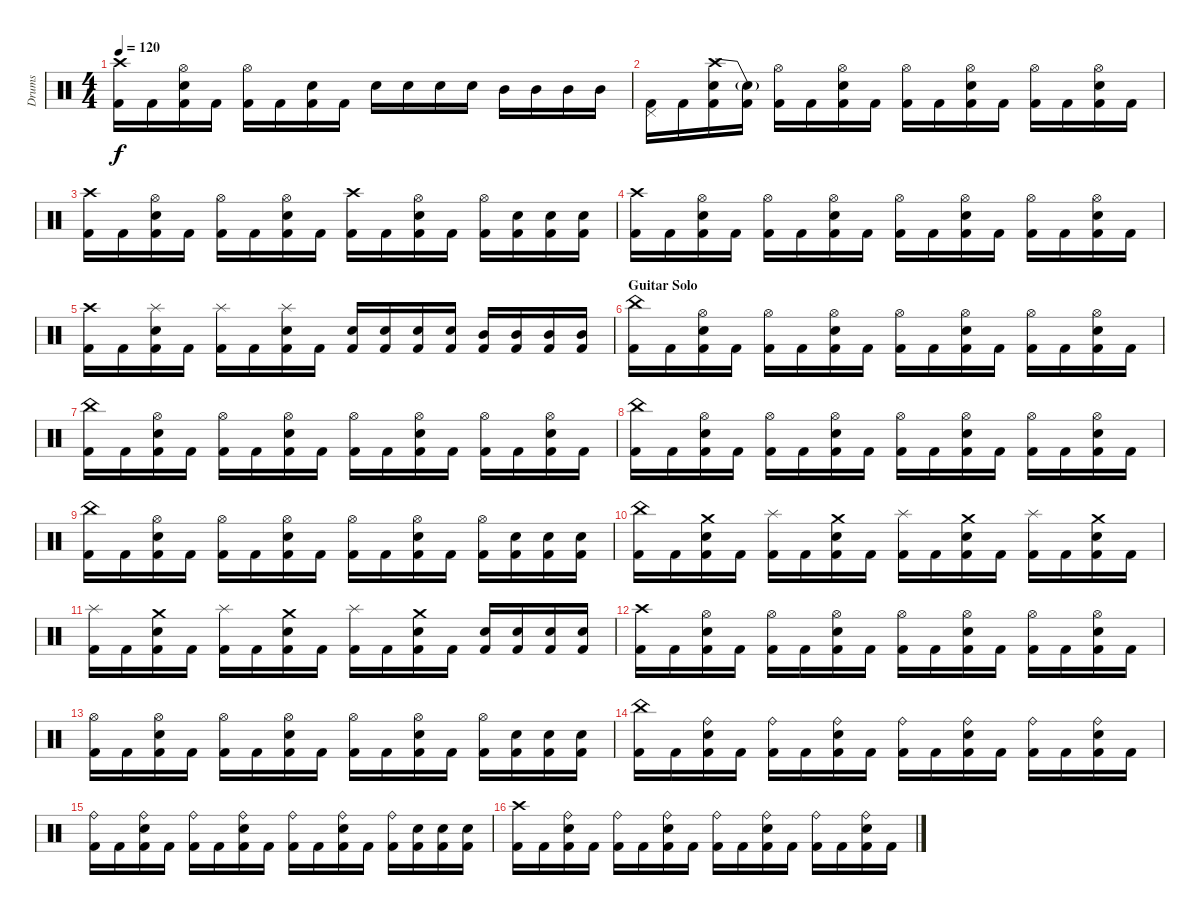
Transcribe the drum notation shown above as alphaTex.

\track ("Drums" "Drums") {instrument percussion}
\staff {score}
\articulation defaults
\ts (4 4)
\tempo 120
\clef neutral
\ks c
("Crash high (hit)" "Kick (hit) 2").16{dy f} "Kick (hit) 2".16 ("Hi-Hat (open)" "Kick (hit) 2" "Electric Snare (hit)").16 "Kick (hit) 2".16 ("Hi-Hat (open)" "Kick (hit) 2").16 "Kick (hit) 2".16 ("Kick (hit) 2" "Electric Snare (hit)").16 "Kick (hit) 2".16 "Electric Snare (hit)".16 "Electric Snare (hit)".16 "Electric Snare (hit)".16 "Electric Snare (hit)".16 "Mid Tom (hit)".16 "Mid Tom (hit)".16 "Mid Tom (hit)".16 "Mid Tom (hit)".16 |
("Pedal Hi-Hat (hit)" "Kick (hit) 2").16 "Kick (hit) 2".16 ("Crash high (hit)"{be (bend 0 0 60 12)} "Kick (hit) 2" "Electric Snare (hit)").16 ("Snare (hit)"{t} "Kick (hit) 2").16 ("Hi-Hat (open)" "Kick (hit) 2").16 "Kick (hit) 2".16 ("Hi-Hat (open)" "Kick (hit) 2" "Electric Snare (hit)").16 "Kick (hit) 2".16 ("Hi-Hat (open)" "Kick (hit) 2").16 "Kick (hit) 2".16 ("Hi-Hat (open)" "Kick (hit) 2" "Electric Snare (hit)").16 "Kick (hit) 2".16 ("Hi-Hat (open)" "Kick (hit) 2").16 "Kick (hit) 2".16 ("Hi-Hat (open)" "Kick (hit) 2" "Electric Snare (hit)").16 "Kick (hit) 2".16 |
("Crash high (hit)" "Kick (hit) 2").16 "Kick (hit) 2".16 ("Hi-Hat (open)" "Kick (hit) 2" "Electric Snare (hit)").16 "Kick (hit) 2".16 ("Hi-Hat (open)" "Kick (hit) 2").16 "Kick (hit) 2".16 ("Hi-Hat (open)" "Kick (hit) 2" "Electric Snare (hit)").16 "Kick (hit) 2".16 ("Crash high (hit)" "Kick (hit) 2").16 "Kick (hit) 2".16 ("Hi-Hat (open)" "Kick (hit) 2" "Electric Snare (hit)").16 "Kick (hit) 2".16 ("Hi-Hat (open)" "Kick (hit) 2").16 ("Kick (hit) 2" "Electric Snare (hit)").16 ("Kick (hit) 2" "Electric Snare (hit)").16 ("Kick (hit) 2" "Electric Snare (hit)").16 |
("Crash high (hit)" "Kick (hit) 2").16 "Kick (hit) 2".16 ("Hi-Hat (open)" "Kick (hit) 2" "Electric Snare (hit)").16 "Kick (hit) 2".16 ("Hi-Hat (open)" "Kick (hit) 2").16 "Kick (hit) 2".16 ("Hi-Hat (open)" "Kick (hit) 2" "Electric Snare (hit)").16 "Kick (hit) 2".16 ("Hi-Hat (open)" "Kick (hit) 2").16 "Kick (hit) 2".16 ("Hi-Hat (open)" "Kick (hit) 2" "Electric Snare (hit)").16 "Kick (hit) 2".16 ("Hi-Hat (open)" "Kick (hit) 2").16 "Kick (hit) 2".16 ("Hi-Hat (open)" "Kick (hit) 2" "Electric Snare (hit)").16 "Kick (hit) 2".16 |
("Crash high (hit)" "Kick (hit) 2").16 "Kick (hit) 2".16 ("Splash (hit)" "Kick (hit) 2" "Electric Snare (hit)").16 "Kick (hit) 2".16 ("Splash (hit)" "Kick (hit) 2").16 "Kick (hit) 2".16 ("Splash (hit)" "Kick (hit) 2" "Electric Snare (hit)").16 "Kick (hit) 2".16 ("Kick (hit) 2" "Electric Snare (hit)").16 ("Kick (hit) 2" "Electric Snare (hit)").16 ("Kick (hit) 2" "Electric Snare (hit)").16 ("Kick (hit) 2" "Electric Snare (hit)").16 ("Kick (hit) 2" "Mid Tom (hit)").16 ("Kick (hit) 2" "Mid Tom (hit)").16 ("Kick (hit) 2" "Mid Tom (hit)").16 ("Kick (hit) 2" "Mid Tom (hit)").16 |
\section ("" "Guitar Solo")
("China (hit)" "Kick (hit) 2").16 "Kick (hit) 2".16 ("Hi-Hat (open)" "Kick (hit) 2" "Electric Snare (hit)").16 "Kick (hit) 2".16 ("Hi-Hat (open)" "Kick (hit) 2").16 "Kick (hit) 2".16 ("Hi-Hat (open)" "Kick (hit) 2" "Electric Snare (hit)").16 "Kick (hit) 2".16 ("Hi-Hat (open)" "Kick (hit) 2").16 "Kick (hit) 2".16 ("Hi-Hat (open)" "Kick (hit) 2" "Electric Snare (hit)").16 "Kick (hit) 2".16 ("Hi-Hat (open)" "Kick (hit) 2").16 "Kick (hit) 2".16 ("Hi-Hat (open)" "Kick (hit) 2" "Electric Snare (hit)").16 "Kick (hit) 2".16 |
("China (hit)" "Kick (hit) 2").16 "Kick (hit) 2".16 ("Hi-Hat (open)" "Kick (hit) 2" "Electric Snare (hit)").16 "Kick (hit) 2".16 ("Hi-Hat (open)" "Kick (hit) 2").16 "Kick (hit) 2".16 ("Hi-Hat (open)" "Kick (hit) 2" "Electric Snare (hit)").16 "Kick (hit) 2".16 ("Hi-Hat (open)" "Kick (hit) 2").16 "Kick (hit) 2".16 ("Hi-Hat (open)" "Kick (hit) 2" "Electric Snare (hit)").16 "Kick (hit) 2".16 ("Hi-Hat (open)" "Kick (hit) 2").16 "Kick (hit) 2".16 ("Hi-Hat (open)" "Kick (hit) 2" "Electric Snare (hit)").16 "Kick (hit) 2".16 |
("China (hit)" "Kick (hit) 2").16 "Kick (hit) 2".16 ("Hi-Hat (open)" "Kick (hit) 2" "Electric Snare (hit)").16 "Kick (hit) 2".16 ("Hi-Hat (open)" "Kick (hit) 2").16 "Kick (hit) 2".16 ("Hi-Hat (open)" "Kick (hit) 2" "Electric Snare (hit)").16 "Kick (hit) 2".16 ("Hi-Hat (open)" "Kick (hit) 2").16 "Kick (hit) 2".16 ("Hi-Hat (open)" "Kick (hit) 2" "Electric Snare (hit)").16 "Kick (hit) 2".16 ("Hi-Hat (open)" "Kick (hit) 2").16 "Kick (hit) 2".16 ("Hi-Hat (open)" "Kick (hit) 2" "Electric Snare (hit)").16 "Kick (hit) 2".16 |
("China (hit)" "Kick (hit) 2").16 "Kick (hit) 2".16 ("Hi-Hat (open)" "Kick (hit) 2" "Electric Snare (hit)").16 "Kick (hit) 2".16 ("Hi-Hat (open)" "Kick (hit) 2").16 "Kick (hit) 2".16 ("Hi-Hat (open)" "Kick (hit) 2" "Electric Snare (hit)").16 "Kick (hit) 2".16 ("Hi-Hat (open)" "Kick (hit) 2").16 "Kick (hit) 2".16 ("Hi-Hat (open)" "Kick (hit) 2" "Electric Snare (hit)").16 "Kick (hit) 2".16 ("Hi-Hat (open)" "Kick (hit) 2").16 ("Kick (hit) 2" "Electric Snare (hit)").16 ("Kick (hit) 2" "Electric Snare (hit)").16 ("Kick (hit) 2" "Electric Snare (hit)").16 |
("China (hit)" "Kick (hit) 2").16 "Kick (hit) 2".16 ("Crash medium (hit)" "Kick (hit) 2" "Electric Snare (hit)").16 "Kick (hit) 2".16 ("Splash (hit)" "Kick (hit) 2").16 "Kick (hit) 2".16 ("Crash medium (hit)" "Kick (hit) 2" "Electric Snare (hit)").16 "Kick (hit) 2".16 ("Splash (hit)" "Kick (hit) 2").16 "Kick (hit) 2".16 ("Crash medium (hit)" "Kick (hit) 2" "Electric Snare (hit)").16 "Kick (hit) 2".16 ("Splash (hit)" "Kick (hit) 2").16 "Kick (hit) 2".16 ("Crash medium (hit)" "Kick (hit) 2" "Electric Snare (hit)").16 "Kick (hit) 2".16 |
("Splash (hit)" "Kick (hit) 2").16 "Kick (hit) 2".16 ("Crash medium (hit)" "Kick (hit) 2" "Electric Snare (hit)").16 "Kick (hit) 2".16 ("Splash (hit)" "Kick (hit) 2").16 "Kick (hit) 2".16 ("Crash medium (hit)" "Kick (hit) 2" "Electric Snare (hit)").16 "Kick (hit) 2".16 ("Splash (hit)" "Kick (hit) 2").16 "Kick (hit) 2".16 ("Crash medium (hit)" "Kick (hit) 2" "Electric Snare (hit)").16 "Kick (hit) 2".16 ("Kick (hit) 2" "Electric Snare (hit)").16 ("Kick (hit) 2" "Electric Snare (hit)").16 ("Kick (hit) 2" "Electric Snare (hit)").16 ("Kick (hit) 2" "Electric Snare (hit)").16 |
("Crash high (hit)" "Kick (hit) 2").16 "Kick (hit) 2".16 ("Hi-Hat (open)" "Kick (hit) 2" "Electric Snare (hit)").16 "Kick (hit) 2".16 ("Hi-Hat (open)" "Kick (hit) 2").16 "Kick (hit) 2".16 ("Hi-Hat (open)" "Kick (hit) 2" "Electric Snare (hit)").16 "Kick (hit) 2".16 ("Hi-Hat (open)" "Kick (hit) 2").16 "Kick (hit) 2".16 ("Hi-Hat (open)" "Kick (hit) 2" "Electric Snare (hit)").16 "Kick (hit) 2".16 ("Hi-Hat (open)" "Kick (hit) 2").16 "Kick (hit) 2".16 ("Hi-Hat (open)" "Kick (hit) 2" "Electric Snare (hit)").16 "Kick (hit) 2".16 |
("Hi-Hat (open)" "Kick (hit) 2").16 "Kick (hit) 2".16 ("Hi-Hat (open)" "Kick (hit) 2" "Electric Snare (hit)").16 "Kick (hit) 2".16 ("Hi-Hat (open)" "Kick (hit) 2").16 "Kick (hit) 2".16 ("Hi-Hat (open)" "Kick (hit) 2" "Electric Snare (hit)").16 "Kick (hit) 2".16 ("Hi-Hat (open)" "Kick (hit) 2").16 "Kick (hit) 2".16 ("Hi-Hat (open)" "Kick (hit) 2" "Electric Snare (hit)").16 "Kick (hit) 2".16 ("Hi-Hat (open)" "Kick (hit) 2").16 ("Kick (hit) 2" "Electric Snare (hit)").16 ("Kick (hit) 2" "Electric Snare (hit)").16 ("Kick (hit) 2" "Electric Snare (hit)").16 |
("China (hit)" "Kick (hit) 2").16 "Kick (hit) 2".16 ("Ride (bell)" "Kick (hit) 2" "Electric Snare (hit)").16 "Kick (hit) 2".16 ("Ride (bell)" "Kick (hit) 2").16 "Kick (hit) 2".16 ("Ride (bell)" "Kick (hit) 2" "Electric Snare (hit)").16 "Kick (hit) 2".16 ("Ride (bell)" "Kick (hit) 2").16 "Kick (hit) 2".16 ("Ride (bell)" "Kick (hit) 2" "Electric Snare (hit)").16 "Kick (hit) 2".16 ("Ride (bell)" "Kick (hit) 2").16 "Kick (hit) 2".16 ("Ride (bell)" "Kick (hit) 2" "Electric Snare (hit)").16 "Kick (hit) 2".16 |
("Ride (bell)" "Kick (hit) 2").16 "Kick (hit) 2".16 ("Ride (bell)" "Kick (hit) 2" "Electric Snare (hit)").16 "Kick (hit) 2".16 ("Ride (bell)" "Kick (hit) 2").16 "Kick (hit) 2".16 ("Ride (bell)" "Kick (hit) 2" "Electric Snare (hit)").16 "Kick (hit) 2".16 ("Ride (bell)" "Kick (hit) 2").16 "Kick (hit) 2".16 ("Ride (bell)" "Kick (hit) 2" "Electric Snare (hit)").16 "Kick (hit) 2".16 ("Ride (bell)" "Kick (hit) 2").16 ("Kick (hit) 2" "Electric Snare (hit)").16 ("Kick (hit) 2" "Electric Snare (hit)").16 ("Kick (hit) 2" "Electric Snare (hit)").16 |
("Crash high (hit)" "Kick (hit) 2").16 "Kick (hit) 2".16 ("Ride (bell)" "Kick (hit) 2" "Electric Snare (hit)").16 "Kick (hit) 2".16 ("Ride (bell)" "Kick (hit) 2").16 "Kick (hit) 2".16 ("Ride (bell)" "Kick (hit) 2" "Electric Snare (hit)").16 "Kick (hit) 2".16 ("Ride (bell)" "Kick (hit) 2").16 "Kick (hit) 2".16 ("Ride (bell)" "Kick (hit) 2" "Electric Snare (hit)").16 "Kick (hit) 2".16 ("Ride (bell)" "Kick (hit) 2").16 "Kick (hit) 2".16 ("Ride (bell)" "Kick (hit) 2" "Electric Snare (hit)").16 "Kick (hit) 2".16
